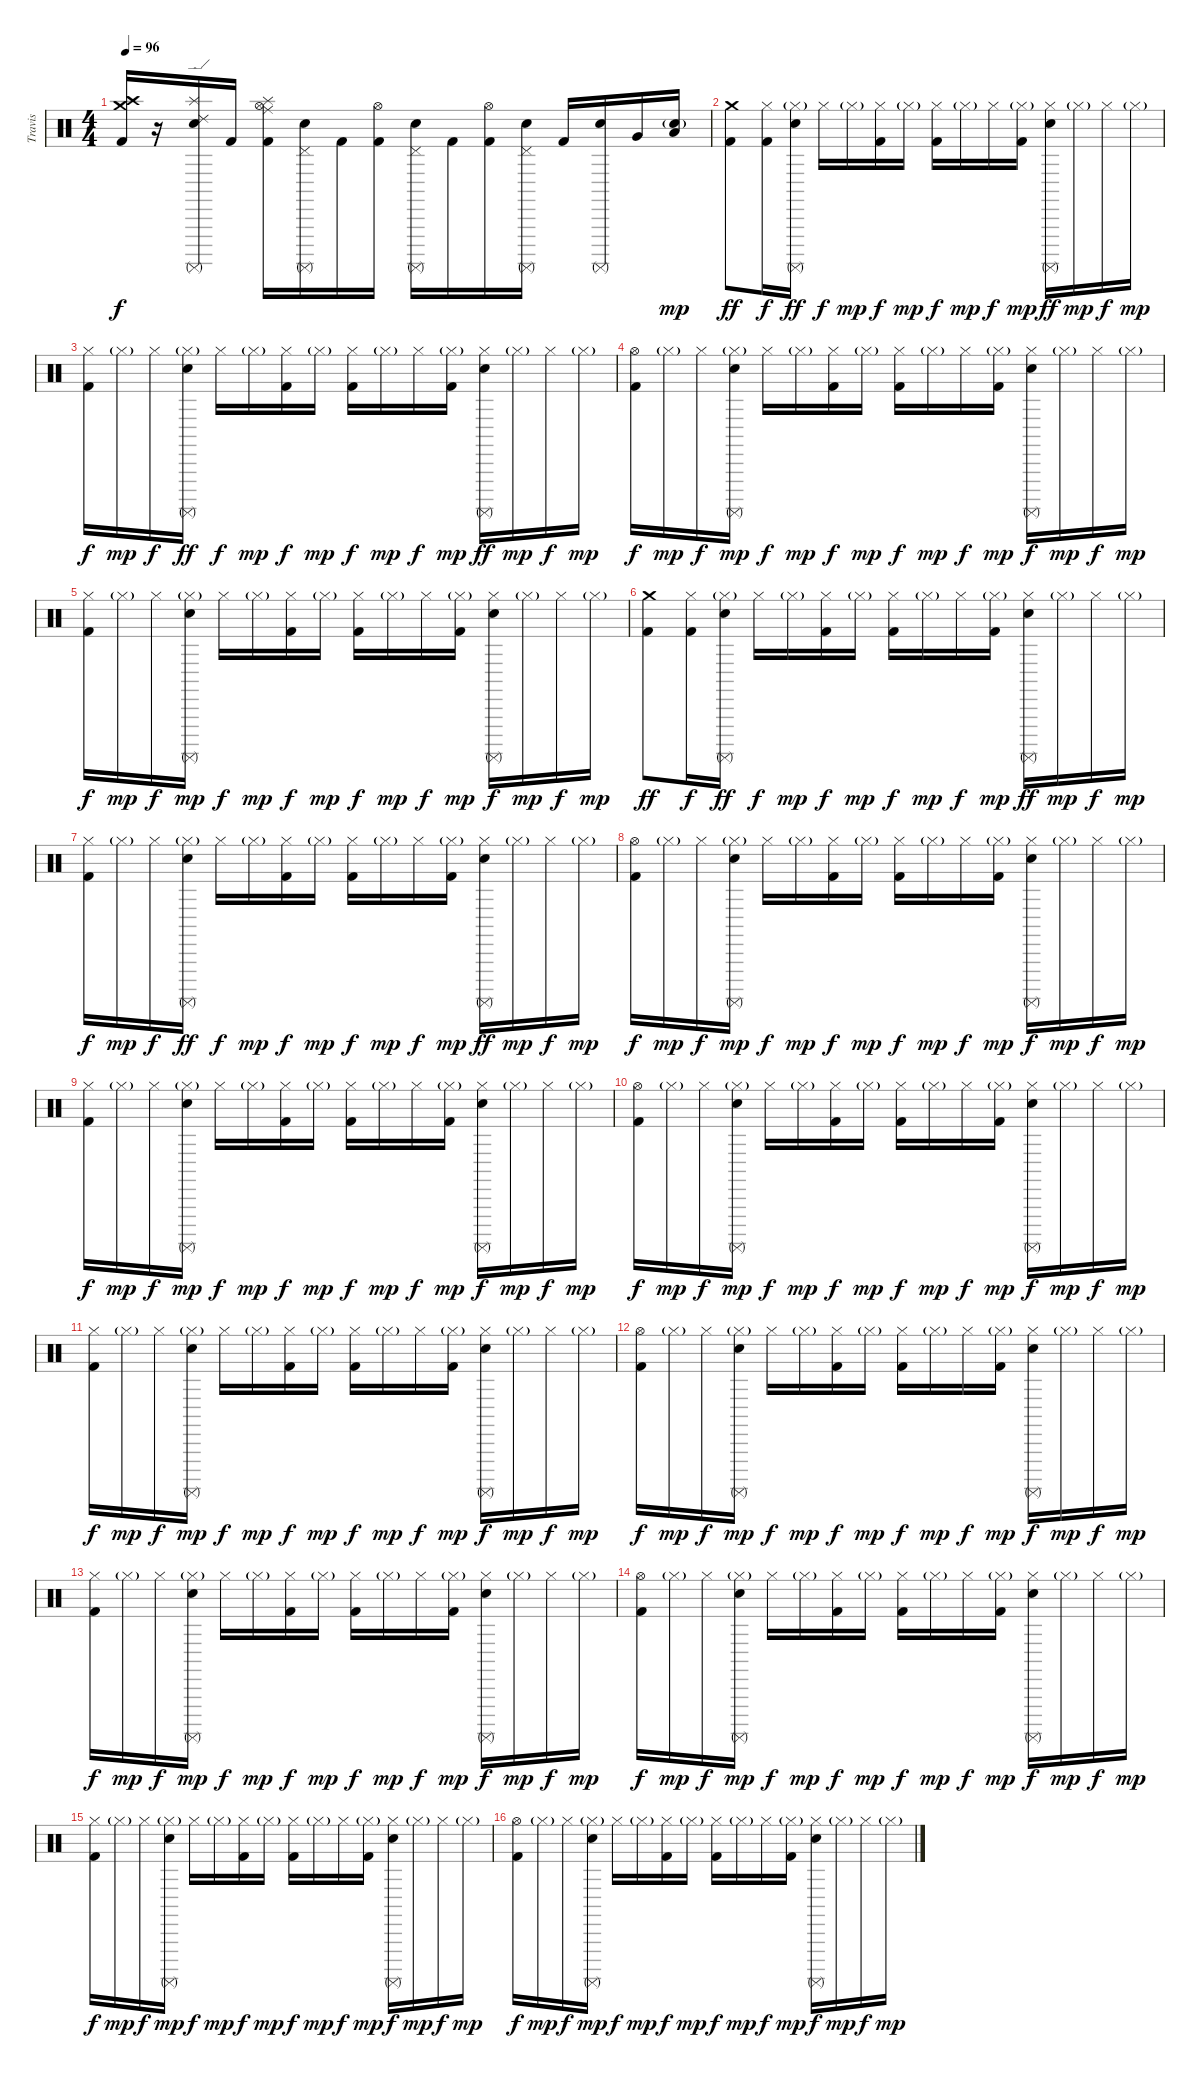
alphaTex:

\track ("Travis" "Travis") {instrument percussion bank 127}
\staff {score}
\articulation defaults
\ts (4 4)
\tempo 96
\clef neutral
\ks c
("Crash medium (hit)" "Crash high (hit)" "Kick (hit) 2").16{dy f} r.16 ("Ride (edge) 2" "Splash (hit)" "Electric Snare (hit)" "Surdo (mute)").16 "Kick (hit) 2".16 ("Ride (middle)" "Splash (hit)" "Hi-Hat (open)" "Kick (hit) 2").16 ("Pedal Hi-Hat (hit)" "Electric Snare (hit)" "Surdo (mute)").16 "Kick (hit) 2".16 ("Hi-Hat (open)" "Kick (hit) 2").16 ("Pedal Hi-Hat (hit)" "Electric Snare (hit)" "Surdo (mute)").16 "Kick (hit) 2".16 ("Hi-Hat (open)" "Kick (hit) 2").16 ("Pedal Hi-Hat (hit)" "Electric Snare (hit)" "Surdo (mute)").16 "Kick (hit) 2".16 ("Electric Snare (hit)" "Surdo (mute)").16 "Very Low Tom (hit)".16 ("Low Floor Tom (hit)" "Electric Snare (hit)"{g}).16{dy mp} |
("Crash medium (hit)" "Kick (hit) 2").8{dy ff} ("Hi-Hat (closed)" "Kick (hit) 2").16{dy f} ("Hi-Hat (closed)"{g} "Electric Snare (hit)" "Surdo (mute)").16{dy ff} "Hi-Hat (closed)".16{dy f} "Hi-Hat (closed)"{g}.16{dy mp} ("Hi-Hat (closed)" "Kick (hit) 2").16{dy f} "Hi-Hat (closed)"{g}.16{dy mp} ("Hi-Hat (closed)" "Kick (hit) 2").16{dy f} "Hi-Hat (closed)"{g}.16{dy mp} "Hi-Hat (closed)".16{dy f} ("Hi-Hat (closed)"{g} "Kick (hit) 2").16{dy mp} ("Hi-Hat (closed)" "Electric Snare (hit)" "Surdo (mute)").16{dy ff} "Hi-Hat (closed)"{g}.16{dy mp} "Hi-Hat (closed)".16{dy f} "Hi-Hat (closed)"{g}.16{dy mp} |
("Hi-Hat (closed)" "Kick (hit) 2").16{dy f} "Hi-Hat (closed)"{g}.16{dy mp} "Hi-Hat (closed)".16{dy f} ("Hi-Hat (closed)"{g} "Electric Snare (hit)" "Surdo (mute)").16{dy ff} "Hi-Hat (closed)".16{dy f} "Hi-Hat (closed)"{g}.16{dy mp} ("Hi-Hat (closed)" "Kick (hit) 2").16{dy f} "Hi-Hat (closed)"{g}.16{dy mp} ("Hi-Hat (closed)" "Kick (hit) 2").16{dy f} "Hi-Hat (closed)"{g}.16{dy mp} "Hi-Hat (closed)".16{dy f} ("Hi-Hat (closed)"{g} "Kick (hit) 2").16{dy mp} ("Hi-Hat (closed)" "Electric Snare (hit)" "Surdo (mute)").16{dy ff} "Hi-Hat (closed)"{g}.16{dy mp} "Hi-Hat (closed)".16{dy f} "Hi-Hat (closed)"{g}.16{dy mp} |
("Hi-Hat (open)" "Kick (hit) 2").16{dy f} "Hi-Hat (closed)"{g}.16{dy mp} "Hi-Hat (closed)".16{dy f} ("Hi-Hat (closed)"{g} "Electric Snare (hit)" "Surdo (mute)").16{dy mp} "Hi-Hat (closed)".16{dy f} "Hi-Hat (closed)"{g}.16{dy mp} ("Hi-Hat (closed)" "Kick (hit) 2").16{dy f} "Hi-Hat (closed)"{g}.16{dy mp} ("Hi-Hat (closed)" "Kick (hit) 2").16{dy f} "Hi-Hat (closed)"{g}.16{dy mp} "Hi-Hat (closed)".16{dy f} ("Hi-Hat (closed)"{g} "Kick (hit) 2").16{dy mp} ("Hi-Hat (closed)" "Electric Snare (hit)" "Surdo (mute)").16{dy f} "Hi-Hat (closed)"{g}.16{dy mp} "Hi-Hat (closed)".16{dy f} "Hi-Hat (closed)"{g}.16{dy mp} |
("Hi-Hat (closed)" "Kick (hit) 2").16{dy f} "Hi-Hat (closed)"{g}.16{dy mp} "Hi-Hat (closed)".16{dy f} ("Hi-Hat (closed)"{g} "Electric Snare (hit)" "Surdo (mute)").16{dy mp} "Hi-Hat (closed)".16{dy f} "Hi-Hat (closed)"{g}.16{dy mp} ("Hi-Hat (closed)" "Kick (hit) 2").16{dy f} "Hi-Hat (closed)"{g}.16{dy mp} ("Hi-Hat (closed)" "Kick (hit) 2").16{dy f} "Hi-Hat (closed)"{g}.16{dy mp} "Hi-Hat (closed)".16{dy f} ("Hi-Hat (closed)"{g} "Kick (hit) 2").16{dy mp} ("Hi-Hat (closed)" "Electric Snare (hit)" "Surdo (mute)").16{dy f} "Hi-Hat (closed)"{g}.16{dy mp} "Hi-Hat (closed)".16{dy f} "Hi-Hat (closed)"{g}.16{dy mp} |
("Crash medium (hit)" "Kick (hit) 2").8{dy ff} ("Hi-Hat (closed)" "Kick (hit) 2").16{dy f} ("Hi-Hat (closed)"{g} "Electric Snare (hit)" "Surdo (mute)").16{dy ff} "Hi-Hat (closed)".16{dy f} "Hi-Hat (closed)"{g}.16{dy mp} ("Hi-Hat (closed)" "Kick (hit) 2").16{dy f} "Hi-Hat (closed)"{g}.16{dy mp} ("Hi-Hat (closed)" "Kick (hit) 2").16{dy f} "Hi-Hat (closed)"{g}.16{dy mp} "Hi-Hat (closed)".16{dy f} ("Hi-Hat (closed)"{g} "Kick (hit) 2").16{dy mp} ("Hi-Hat (closed)" "Electric Snare (hit)" "Surdo (mute)").16{dy ff} "Hi-Hat (closed)"{g}.16{dy mp} "Hi-Hat (closed)".16{dy f} "Hi-Hat (closed)"{g}.16{dy mp} |
("Hi-Hat (closed)" "Kick (hit) 2").16{dy f} "Hi-Hat (closed)"{g}.16{dy mp} "Hi-Hat (closed)".16{dy f} ("Hi-Hat (closed)"{g} "Electric Snare (hit)" "Surdo (mute)").16{dy ff} "Hi-Hat (closed)".16{dy f} "Hi-Hat (closed)"{g}.16{dy mp} ("Hi-Hat (closed)" "Kick (hit) 2").16{dy f} "Hi-Hat (closed)"{g}.16{dy mp} ("Hi-Hat (closed)" "Kick (hit) 2").16{dy f} "Hi-Hat (closed)"{g}.16{dy mp} "Hi-Hat (closed)".16{dy f} ("Hi-Hat (closed)"{g} "Kick (hit) 2").16{dy mp} ("Hi-Hat (closed)" "Electric Snare (hit)" "Surdo (mute)").16{dy ff} "Hi-Hat (closed)"{g}.16{dy mp} "Hi-Hat (closed)".16{dy f} "Hi-Hat (closed)"{g}.16{dy mp} |
("Hi-Hat (open)" "Kick (hit) 2").16{dy f} "Hi-Hat (closed)"{g}.16{dy mp} "Hi-Hat (closed)".16{dy f} ("Hi-Hat (closed)"{g} "Electric Snare (hit)" "Surdo (mute)").16{dy mp} "Hi-Hat (closed)".16{dy f} "Hi-Hat (closed)"{g}.16{dy mp} ("Hi-Hat (closed)" "Kick (hit) 2").16{dy f} "Hi-Hat (closed)"{g}.16{dy mp} ("Hi-Hat (closed)" "Kick (hit) 2").16{dy f} "Hi-Hat (closed)"{g}.16{dy mp} "Hi-Hat (closed)".16{dy f} ("Hi-Hat (closed)"{g} "Kick (hit) 2").16{dy mp} ("Hi-Hat (closed)" "Electric Snare (hit)" "Surdo (mute)").16{dy f} "Hi-Hat (closed)"{g}.16{dy mp} "Hi-Hat (closed)".16{dy f} "Hi-Hat (closed)"{g}.16{dy mp} |
("Hi-Hat (closed)" "Kick (hit) 2").16{dy f} "Hi-Hat (closed)"{g}.16{dy mp} "Hi-Hat (closed)".16{dy f} ("Hi-Hat (closed)"{g} "Electric Snare (hit)" "Surdo (mute)").16{dy mp} "Hi-Hat (closed)".16{dy f} "Hi-Hat (closed)"{g}.16{dy mp} ("Hi-Hat (closed)" "Kick (hit) 2").16{dy f} "Hi-Hat (closed)"{g}.16{dy mp} ("Hi-Hat (closed)" "Kick (hit) 2").16{dy f} "Hi-Hat (closed)"{g}.16{dy mp} "Hi-Hat (closed)".16{dy f} ("Hi-Hat (closed)"{g} "Kick (hit) 2").16{dy mp} ("Hi-Hat (closed)" "Electric Snare (hit)" "Surdo (mute)").16{dy f} "Hi-Hat (closed)"{g}.16{dy mp} "Hi-Hat (closed)".16{dy f} "Hi-Hat (closed)"{g}.16{dy mp} |
("Hi-Hat (open)" "Kick (hit) 2").16{dy f} "Hi-Hat (closed)"{g}.16{dy mp} "Hi-Hat (closed)".16{dy f} ("Hi-Hat (closed)"{g} "Electric Snare (hit)" "Surdo (mute)").16{dy mp} "Hi-Hat (closed)".16{dy f} "Hi-Hat (closed)"{g}.16{dy mp} ("Hi-Hat (closed)" "Kick (hit) 2").16{dy f} "Hi-Hat (closed)"{g}.16{dy mp} ("Hi-Hat (closed)" "Kick (hit) 2").16{dy f} "Hi-Hat (closed)"{g}.16{dy mp} "Hi-Hat (closed)".16{dy f} ("Hi-Hat (closed)"{g} "Kick (hit) 2").16{dy mp} ("Hi-Hat (closed)" "Electric Snare (hit)" "Surdo (mute)").16{dy f} "Hi-Hat (closed)"{g}.16{dy mp} "Hi-Hat (closed)".16{dy f} "Hi-Hat (closed)"{g}.16{dy mp} |
("Hi-Hat (closed)" "Kick (hit) 2").16{dy f} "Hi-Hat (closed)"{g}.16{dy mp} "Hi-Hat (closed)".16{dy f} ("Hi-Hat (closed)"{g} "Electric Snare (hit)" "Surdo (mute)").16{dy mp} "Hi-Hat (closed)".16{dy f} "Hi-Hat (closed)"{g}.16{dy mp} ("Hi-Hat (closed)" "Kick (hit) 2").16{dy f} "Hi-Hat (closed)"{g}.16{dy mp} ("Hi-Hat (closed)" "Kick (hit) 2").16{dy f} "Hi-Hat (closed)"{g}.16{dy mp} "Hi-Hat (closed)".16{dy f} ("Hi-Hat (closed)"{g} "Kick (hit) 2").16{dy mp} ("Hi-Hat (closed)" "Electric Snare (hit)" "Surdo (mute)").16{dy f} "Hi-Hat (closed)"{g}.16{dy mp} "Hi-Hat (closed)".16{dy f} "Hi-Hat (closed)"{g}.16{dy mp} |
("Hi-Hat (open)" "Kick (hit) 2").16{dy f} "Hi-Hat (closed)"{g}.16{dy mp} "Hi-Hat (closed)".16{dy f} ("Hi-Hat (closed)"{g} "Electric Snare (hit)" "Surdo (mute)").16{dy mp} "Hi-Hat (closed)".16{dy f} "Hi-Hat (closed)"{g}.16{dy mp} ("Hi-Hat (closed)" "Kick (hit) 2").16{dy f} "Hi-Hat (closed)"{g}.16{dy mp} ("Hi-Hat (closed)" "Kick (hit) 2").16{dy f} "Hi-Hat (closed)"{g}.16{dy mp} "Hi-Hat (closed)".16{dy f} ("Hi-Hat (closed)"{g} "Kick (hit) 2").16{dy mp} ("Hi-Hat (closed)" "Electric Snare (hit)" "Surdo (mute)").16{dy f} "Hi-Hat (closed)"{g}.16{dy mp} "Hi-Hat (closed)".16{dy f} "Hi-Hat (closed)"{g}.16{dy mp} |
("Hi-Hat (closed)" "Kick (hit) 2").16{dy f} "Hi-Hat (closed)"{g}.16{dy mp} "Hi-Hat (closed)".16{dy f} ("Hi-Hat (closed)"{g} "Electric Snare (hit)" "Surdo (mute)").16{dy mp} "Hi-Hat (closed)".16{dy f} "Hi-Hat (closed)"{g}.16{dy mp} ("Hi-Hat (closed)" "Kick (hit) 2").16{dy f} "Hi-Hat (closed)"{g}.16{dy mp} ("Hi-Hat (closed)" "Kick (hit) 2").16{dy f} "Hi-Hat (closed)"{g}.16{dy mp} "Hi-Hat (closed)".16{dy f} ("Hi-Hat (closed)"{g} "Kick (hit) 2").16{dy mp} ("Hi-Hat (closed)" "Electric Snare (hit)" "Surdo (mute)").16{dy f} "Hi-Hat (closed)"{g}.16{dy mp} "Hi-Hat (closed)".16{dy f} "Hi-Hat (closed)"{g}.16{dy mp} |
("Hi-Hat (open)" "Kick (hit) 2").16{dy f} "Hi-Hat (closed)"{g}.16{dy mp} "Hi-Hat (closed)".16{dy f} ("Hi-Hat (closed)"{g} "Electric Snare (hit)" "Surdo (mute)").16{dy mp} "Hi-Hat (closed)".16{dy f} "Hi-Hat (closed)"{g}.16{dy mp} ("Hi-Hat (closed)" "Kick (hit) 2").16{dy f} "Hi-Hat (closed)"{g}.16{dy mp} ("Hi-Hat (closed)" "Kick (hit) 2").16{dy f} "Hi-Hat (closed)"{g}.16{dy mp} "Hi-Hat (closed)".16{dy f} ("Hi-Hat (closed)"{g} "Kick (hit) 2").16{dy mp} ("Hi-Hat (closed)" "Electric Snare (hit)" "Surdo (mute)").16{dy f} "Hi-Hat (closed)"{g}.16{dy mp} "Hi-Hat (closed)".16{dy f} "Hi-Hat (closed)"{g}.16{dy mp} |
("Hi-Hat (closed)" "Kick (hit) 2").16{dy f} "Hi-Hat (closed)"{g}.16{dy mp} "Hi-Hat (closed)".16{dy f} ("Hi-Hat (closed)"{g} "Electric Snare (hit)" "Surdo (mute)").16{dy mp} "Hi-Hat (closed)".16{dy f} "Hi-Hat (closed)"{g}.16{dy mp} ("Hi-Hat (closed)" "Kick (hit) 2").16{dy f} "Hi-Hat (closed)"{g}.16{dy mp} ("Hi-Hat (closed)" "Kick (hit) 2").16{dy f} "Hi-Hat (closed)"{g}.16{dy mp} "Hi-Hat (closed)".16{dy f} ("Hi-Hat (closed)"{g} "Kick (hit) 2").16{dy mp} ("Hi-Hat (closed)" "Electric Snare (hit)" "Surdo (mute)").16{dy f} "Hi-Hat (closed)"{g}.16{dy mp} "Hi-Hat (closed)".16{dy f} "Hi-Hat (closed)"{g}.16{dy mp} |
("Hi-Hat (open)" "Kick (hit) 2").16{dy f} "Hi-Hat (closed)"{g}.16{dy mp} "Hi-Hat (closed)".16{dy f} ("Hi-Hat (closed)"{g} "Electric Snare (hit)" "Surdo (mute)").16{dy mp} "Hi-Hat (closed)".16{dy f} "Hi-Hat (closed)"{g}.16{dy mp} ("Hi-Hat (closed)" "Kick (hit) 2").16{dy f} "Hi-Hat (closed)"{g}.16{dy mp} ("Hi-Hat (closed)" "Kick (hit) 2").16{dy f} "Hi-Hat (closed)"{g}.16{dy mp} "Hi-Hat (closed)".16{dy f} ("Hi-Hat (closed)"{g} "Kick (hit) 2").16{dy mp} ("Hi-Hat (closed)" "Electric Snare (hit)" "Surdo (mute)").16{dy f} "Hi-Hat (closed)"{g}.16{dy mp} "Hi-Hat (closed)".16{dy f} "Hi-Hat (closed)"{g}.16{dy mp}
